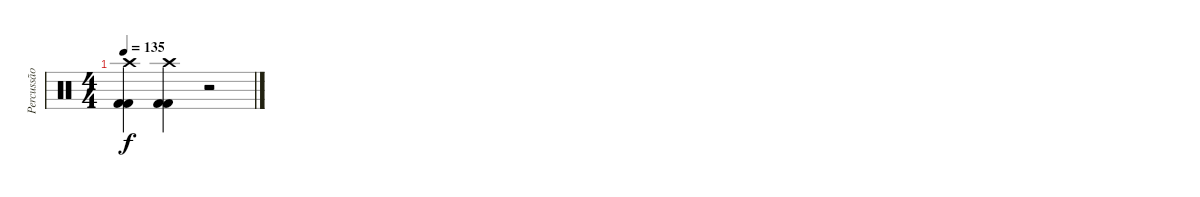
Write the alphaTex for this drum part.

\track ("Percussão" "Percussão") {instrument percussion}
\staff {score}
\articulation defaults
\ts (4 4)
\tempo 135
\clef neutral
\ks c
("Crash high (hit)" "Kick (hit) 2" "Kick (hit) 2").4{dy f} ("Crash high (hit)" "Kick (hit) 2" "Kick (hit) 2").4 r.2
